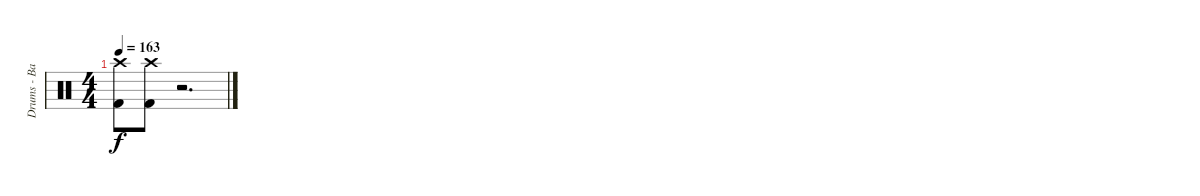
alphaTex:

\track ("Drums - Bateria" "Drums - Ba") {instrument percussion}
\staff {score}
\articulation defaults
\ts (4 4)
\tempo 163
\clef neutral
\ks c
("Crash high (hit)" "Kick (hit) 2").8{dy f} ("Crash high (hit)" "Kick (hit) 2").8 r.2{d}
